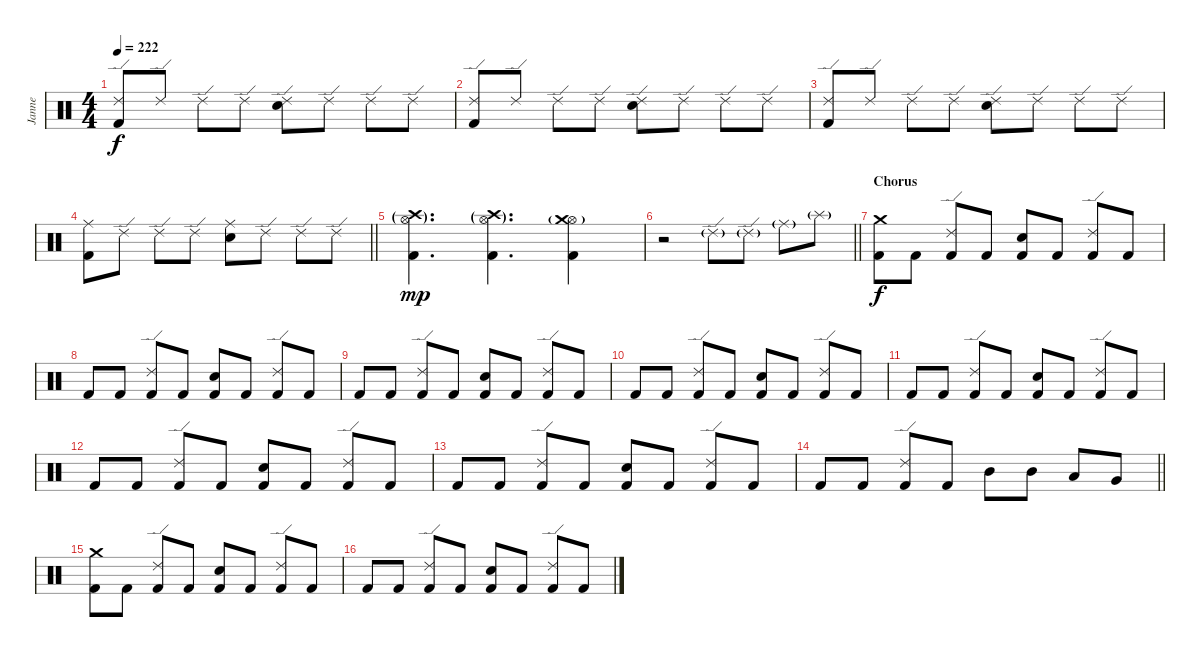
\track ("Janne" "Janne") {instrument percussion}
\staff {score}
\articulation defaults
\ts (4 4)
\tempo 222
\clef neutral
\ks c
("Kick (hit) 2" "Ride (edge) 2").8{dy f} "Ride (edge) 2".8 "Ride (edge) 2".8 "Ride (edge) 2".8 ("Electric Snare (hit)" "Ride (edge) 2").8 "Ride (edge) 2".8 "Ride (edge) 2".8 "Ride (edge) 2".8 |
("Kick (hit) 2" "Ride (edge) 2").8 "Ride (edge) 2".8 "Ride (edge) 2".8 "Ride (edge) 2".8 ("Electric Snare (hit)" "Ride (edge) 2").8 "Ride (edge) 2".8 "Ride (edge) 2".8 "Ride (edge) 2".8 |
("Kick (hit) 2" "Ride (edge) 2").8 "Ride (edge) 2".8 "Ride (edge) 2".8 "Ride (edge) 2".8 ("Electric Snare (hit)" "Ride (edge) 2").8 "Ride (edge) 2".8 "Ride (edge) 2".8 "Ride (edge) 2".8 |
\barLineRight lightlight
("Kick (hit) 2" "Ride (middle)").8 "Ride (edge) 2".8 "Ride (edge) 2".8 "Ride (edge) 2".8 ("Electric Snare (hit)" "Ride (middle)").8 "Ride (edge) 2".8 "Ride (edge) 2".8 "Ride (edge) 2".8 |
\section ("" "")
("Kick (hit) 2" "Hi-Hat (open)"{g} "Crash high (hit)"{g}).4{d dy mp} ("Kick (hit) 2" "Hi-Hat (open)"{g} "Crash high (hit)"{g}).4{d} ("Kick (hit) 2" "Hi-Hat (open)"{g} "Crash medium (hit)"{g}).4 |
\barLineRight lightlight
r.2 "Ride (edge) 2"{g}.8 "Ride (edge) 2"{g}.8 "Ride (middle)"{g}.8 "Splash (hit)"{g}.8 |
\section ("" "Chorus")
("Kick (hit) 2" "Crash medium (hit)").8{dy f} "Kick (hit) 2".8 ("Kick (hit) 2" "Ride (edge) 2").8 "Kick (hit) 2".8 ("Kick (hit) 2" "Electric Snare (hit)").8 "Kick (hit) 2".8 ("Kick (hit) 2" "Ride (edge) 2").8 "Kick (hit) 2".8 |
"Kick (hit) 2".8 "Kick (hit) 2".8 ("Kick (hit) 2" "Ride (edge) 2").8 "Kick (hit) 2".8 ("Kick (hit) 2" "Electric Snare (hit)").8 "Kick (hit) 2".8 ("Kick (hit) 2" "Ride (edge) 2").8 "Kick (hit) 2".8 |
"Kick (hit) 2".8 "Kick (hit) 2".8 ("Kick (hit) 2" "Ride (edge) 2").8 "Kick (hit) 2".8 ("Kick (hit) 2" "Electric Snare (hit)").8 "Kick (hit) 2".8 ("Kick (hit) 2" "Ride (edge) 2").8 "Kick (hit) 2".8 |
"Kick (hit) 2".8 "Kick (hit) 2".8 ("Kick (hit) 2" "Ride (edge) 2").8 "Kick (hit) 2".8 ("Kick (hit) 2" "Electric Snare (hit)").8 "Kick (hit) 2".8 ("Kick (hit) 2" "Ride (edge) 2").8 "Kick (hit) 2".8 |
"Kick (hit) 2".8 "Kick (hit) 2".8 ("Kick (hit) 2" "Ride (edge) 2").8 "Kick (hit) 2".8 ("Kick (hit) 2" "Electric Snare (hit)").8 "Kick (hit) 2".8 ("Kick (hit) 2" "Ride (edge) 2").8 "Kick (hit) 2".8 |
"Kick (hit) 2".8 "Kick (hit) 2".8 ("Kick (hit) 2" "Ride (edge) 2").8 "Kick (hit) 2".8 ("Kick (hit) 2" "Electric Snare (hit)").8 "Kick (hit) 2".8 ("Kick (hit) 2" "Ride (edge) 2").8 "Kick (hit) 2".8 |
"Kick (hit) 2".8 "Kick (hit) 2".8 ("Kick (hit) 2" "Ride (edge) 2").8 "Kick (hit) 2".8 ("Kick (hit) 2" "Electric Snare (hit)").8 "Kick (hit) 2".8 ("Kick (hit) 2" "Ride (edge) 2").8 "Kick (hit) 2".8 |
\barLineRight lightlight "Kick (hit) 2".8 "Kick (hit) 2".8
("Kick (hit) 2" "Ride (edge) 2").8 "Kick (hit) 2".8 "Mid Tom (hit)".8 "Mid Tom (hit)".8 "Low Tom (hit)".8 "Very Low Tom (hit)".8 |
\section ("" "")
("Kick (hit) 2" "Crash medium (hit)").8 "Kick (hit) 2".8 ("Kick (hit) 2" "Ride (edge) 2").8 "Kick (hit) 2".8 ("Kick (hit) 2" "Electric Snare (hit)").8 "Kick (hit) 2".8 ("Kick (hit) 2" "Ride (edge) 2").8 "Kick (hit) 2".8 |
"Kick (hit) 2".8 "Kick (hit) 2".8 ("Kick (hit) 2" "Ride (edge) 2").8 "Kick (hit) 2".8 ("Kick (hit) 2" "Electric Snare (hit)").8 "Kick (hit) 2".8 ("Kick (hit) 2" "Ride (edge) 2").8 "Kick (hit) 2".8
